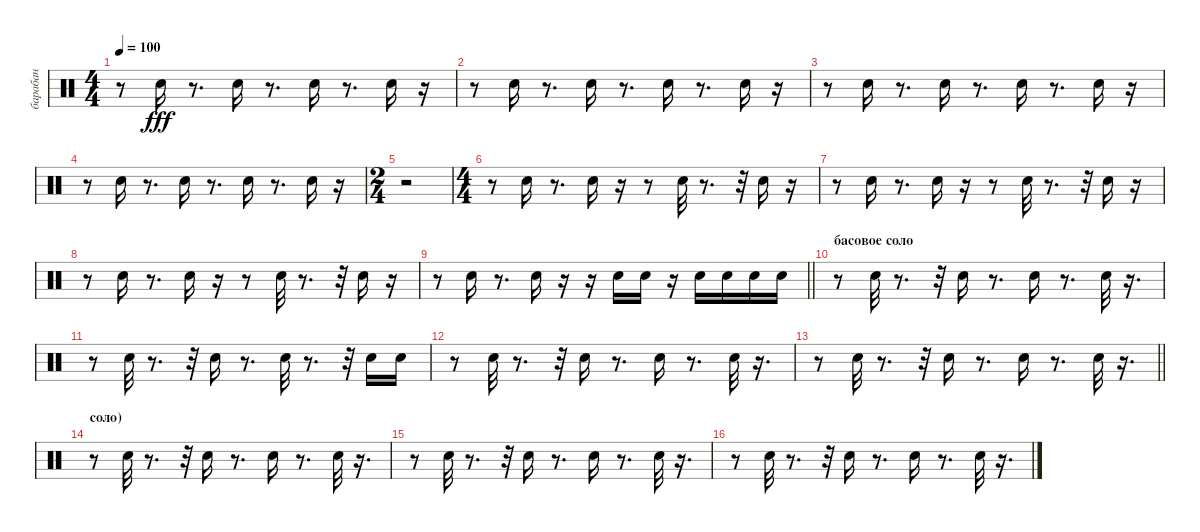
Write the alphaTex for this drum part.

\track ("барабан" "барабан") {instrument percussion}
\staff {score}
\articulation defaults
\ts (4 4)
\tempo 100
\clef neutral
\ks c
r.8{dy fff} "Snare (hit) 2".16 r.8{d} "Snare (hit) 2".16 r.8{d} "Snare (hit) 2".16 r.8{d} "Snare (hit) 2".16 r.16 |
r.8 "Snare (hit) 2".16 r.8{d} "Snare (hit) 2".16 r.8{d} "Snare (hit) 2".16 r.8{d} "Snare (hit) 2".16 r.16 |
r.8 "Snare (hit) 2".16 r.8{d} "Snare (hit) 2".16 r.8{d} "Snare (hit) 2".16 r.8{d} "Snare (hit) 2".16 r.16 |
r.8 "Snare (hit) 2".16 r.8{d} "Snare (hit) 2".16 r.8{d} "Snare (hit) 2".16 r.8{d} "Snare (hit) 2".16 r.16 |
\ts (2 4)
r.2 |
\ts (4 4)
r.8 "Snare (hit) 2".16 r.8{d} "Snare (hit) 2".16 r.16 r.8 "Snare (hit) 2".32 r.8{d} r.32 "Snare (hit) 2".16 r.16 |
r.8 "Snare (hit) 2".16 r.8{d} "Snare (hit) 2".16 r.16 r.8 "Snare (hit) 2".32 r.8{d} r.32 "Snare (hit) 2".16 r.16 |
r.8 "Snare (hit) 2".16 r.8{d} "Snare (hit) 2".16 r.16 r.8 "Snare (hit) 2".32 r.8{d} r.32 "Snare (hit) 2".16 r.16 |
\barLineRight lightlight
r.8 "Snare (hit) 2".16 r.8{d} "Snare (hit) 2".16 r.16 r.16 "Snare (hit) 2".16 "Snare (hit) 2".16 r.16 "Snare (hit) 2".16 "Snare (hit) 2".16 "Snare (hit) 2".16 "Snare (hit) 2".16 |
\section ("" "басовое соло")
r.8 "Snare (hit) 2".32 r.8{d} r.32 "Snare (hit) 2".16 r.8{d} "Snare (hit) 2".16 r.8{d} "Snare (hit) 2".32 r.16{d} |
r.8 "Snare (hit) 2".32 r.8{d} r.32 "Snare (hit) 2".16 r.8{d} "Snare (hit) 2".32 r.8{d} r.32 "Snare (hit) 2".16 "Snare (hit) 2".16 |
r.8 "Snare (hit) 2".32 r.8{d} r.32 "Snare (hit) 2".16 r.8{d} "Snare (hit) 2".16 r.8{d} "Snare (hit) 2".32 r.16{d} |
\barLineRight lightlight
r.8 "Snare (hit) 2".32 r.8{d} r.32 "Snare (hit) 2".16 r.8{d} "Snare (hit) 2".16 r.8{d} "Snare (hit) 2".32 r.16{d} |
\section ("" "соло)")
r.8 "Snare (hit) 2".32 r.8{d} r.32 "Snare (hit) 2".16 r.8{d} "Snare (hit) 2".16 r.8{d} "Snare (hit) 2".32 r.16{d} |
r.8 "Snare (hit) 2".32 r.8{d} r.32 "Snare (hit) 2".16 r.8{d} "Snare (hit) 2".16 r.8{d} "Snare (hit) 2".32 r.16{d} |
r.8 "Snare (hit) 2".32 r.8{d} r.32 "Snare (hit) 2".16 r.8{d} "Snare (hit) 2".16 r.8{d} "Snare (hit) 2".32 r.16{d}
